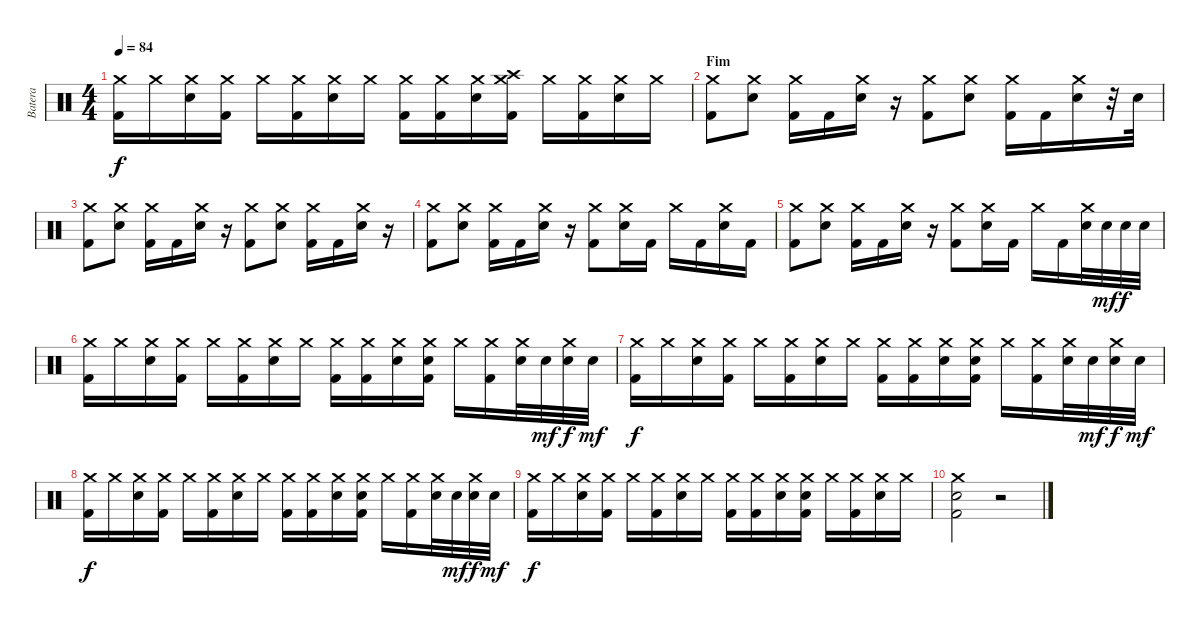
\track ("Batera" "Batera") {instrument percussion}
\staff {score}
\articulation defaults
\ts (4 4)
\tempo 84
\clef neutral
\ks c
("Crash medium (hit)" "Kick (hit) 2").16{dy f} "Crash medium (hit)".16 ("Snare (hit) 2" "Crash medium (hit)").16 ("Crash medium (hit)" "Kick (hit) 2").16 "Crash medium (hit)".16 ("Crash medium (hit)" "Kick (hit) 2").16 ("Snare (hit) 2" "Crash medium (hit)").16 "Crash medium (hit)".16 ("Crash medium (hit)" "Kick (hit) 2").16 ("Crash medium (hit)" "Kick (hit) 2").16 ("Snare (hit) 2" "Crash medium (hit)").16 ("Crash medium (hit)" "Crash high (hit)" "Kick (hit) 2").16 "Crash medium (hit)".16 ("Crash medium (hit)" "Kick (hit) 2").16 ("Snare (hit) 2" "Crash medium (hit)").16 "Crash medium (hit)".16 |
\section ("" "Fim")
("Crash medium (hit)" "Kick (hit) 2").8 ("Snare (hit) 2" "Crash medium (hit)").8 ("Crash medium (hit)" "Kick (hit) 2").16 "Kick (hit) 2".16 ("Snare (hit) 2" "Crash medium (hit)").16 r.16 ("Crash medium (hit)" "Kick (hit) 2").8 ("Snare (hit) 2" "Crash medium (hit)").8 ("Crash medium (hit)" "Kick (hit) 2").16 "Kick (hit) 2".16 ("Snare (hit) 2" "Crash medium (hit)").16 r.32 "Snare (hit) 2".32 |
("Crash medium (hit)" "Kick (hit) 2").8 ("Snare (hit) 2" "Crash medium (hit)").8 ("Crash medium (hit)" "Kick (hit) 2").16 "Kick (hit) 2".16 ("Snare (hit) 2" "Crash medium (hit)").16 r.16 ("Crash medium (hit)" "Kick (hit) 2").8 ("Snare (hit) 2" "Crash medium (hit)").8 ("Crash medium (hit)" "Kick (hit) 2").16 "Kick (hit) 2".16 ("Snare (hit) 2" "Crash medium (hit)").16 r.16 |
("Crash medium (hit)" "Kick (hit) 2").8 ("Snare (hit) 2" "Crash medium (hit)").8 ("Crash medium (hit)" "Kick (hit) 2").16 "Kick (hit) 2".16 ("Snare (hit) 2" "Crash medium (hit)").16 r.16 ("Crash medium (hit)" "Kick (hit) 2").8 ("Snare (hit) 2" "Crash medium (hit)").16 "Kick (hit) 2".16 "Crash medium (hit)".16 "Kick (hit) 2".16 ("Snare (hit) 2" "Crash medium (hit)").16 "Kick (hit) 2".16 |
("Crash medium (hit)" "Kick (hit) 2").8 ("Snare (hit) 2" "Crash medium (hit)").8 ("Crash medium (hit)" "Kick (hit) 2").16 "Kick (hit) 2".16 ("Snare (hit) 2" "Crash medium (hit)").16 r.16 ("Crash medium (hit)" "Kick (hit) 2").8 ("Snare (hit) 2" "Crash medium (hit)").16 "Kick (hit) 2".16 "Crash medium (hit)".16 "Kick (hit) 2".16 ("Snare (hit) 2" "Crash medium (hit)").32 "Snare (hit) 2".32{dy mf} "Snare (hit) 2".32{dy f} "Snare (hit) 2".32 |
("Crash medium (hit)" "Kick (hit) 2").16 "Crash medium (hit)".16 ("Snare (hit) 2" "Crash medium (hit)").16 ("Crash medium (hit)" "Kick (hit) 2").16 "Crash medium (hit)".16 ("Crash medium (hit)" "Kick (hit) 2").16 ("Snare (hit) 2" "Crash medium (hit)").16 "Crash medium (hit)".16 ("Crash medium (hit)" "Kick (hit) 2").16 ("Crash medium (hit)" "Kick (hit) 2").16 ("Snare (hit) 2" "Crash medium (hit)").16 ("Snare (hit) 2" "Crash medium (hit)" "Kick (hit) 2").16 "Crash medium (hit)".16 ("Crash medium (hit)" "Kick (hit) 2").16 ("Snare (hit) 2" "Crash medium (hit)").32 "Snare (hit) 2".32{dy mf} ("Snare (hit) 2" "Crash medium (hit)").32{dy f} "Snare (hit) 2".32{dy mf} |
("Crash medium (hit)" "Kick (hit) 2").16{dy f} "Crash medium (hit)".16 ("Snare (hit) 2" "Crash medium (hit)").16 ("Crash medium (hit)" "Kick (hit) 2").16 "Crash medium (hit)".16 ("Crash medium (hit)" "Kick (hit) 2").16 ("Snare (hit) 2" "Crash medium (hit)").16 "Crash medium (hit)".16 ("Crash medium (hit)" "Kick (hit) 2").16 ("Crash medium (hit)" "Kick (hit) 2").16 ("Snare (hit) 2" "Crash medium (hit)").16 ("Snare (hit) 2" "Crash medium (hit)" "Kick (hit) 2").16 "Crash medium (hit)".16 ("Crash medium (hit)" "Kick (hit) 2").16 ("Snare (hit) 2" "Crash medium (hit)").32 "Snare (hit) 2".32{dy mf} ("Snare (hit) 2" "Crash medium (hit)").32{dy f} "Snare (hit) 2".32{dy mf} |
("Crash medium (hit)" "Kick (hit) 2").16{dy f} "Crash medium (hit)".16 ("Snare (hit) 2" "Crash medium (hit)").16 ("Crash medium (hit)" "Kick (hit) 2").16 "Crash medium (hit)".16 ("Crash medium (hit)" "Kick (hit) 2").16 ("Snare (hit) 2" "Crash medium (hit)").16 "Crash medium (hit)".16 ("Crash medium (hit)" "Kick (hit) 2").16 ("Crash medium (hit)" "Kick (hit) 2").16 ("Snare (hit) 2" "Crash medium (hit)").16 ("Snare (hit) 2" "Crash medium (hit)" "Kick (hit) 2").16 "Crash medium (hit)".16 ("Crash medium (hit)" "Kick (hit) 2").16 ("Snare (hit) 2" "Crash medium (hit)").32 "Snare (hit) 2".32{dy mf} ("Snare (hit) 2" "Crash medium (hit)").32{dy f} "Snare (hit) 2".32{dy mf} |
("Crash medium (hit)" "Kick (hit) 2").16{dy f} "Crash medium (hit)".16 ("Snare (hit) 2" "Crash medium (hit)").16 ("Crash medium (hit)" "Kick (hit) 2").16 "Crash medium (hit)".16 ("Crash medium (hit)" "Kick (hit) 2").16 ("Snare (hit) 2" "Crash medium (hit)").16 "Crash medium (hit)".16 ("Crash medium (hit)" "Kick (hit) 2").16 ("Crash medium (hit)" "Kick (hit) 2").16 ("Snare (hit) 2" "Crash medium (hit)").16 ("Snare (hit) 2" "Crash medium (hit)" "Kick (hit) 2").16 "Crash medium (hit)".16 ("Crash medium (hit)" "Kick (hit) 2").16 ("Snare (hit) 2" "Crash medium (hit)").16 "Crash medium (hit)".16 |
("Snare (hit) 2" "Crash medium (hit)" "Kick (hit) 2").2 r.2
